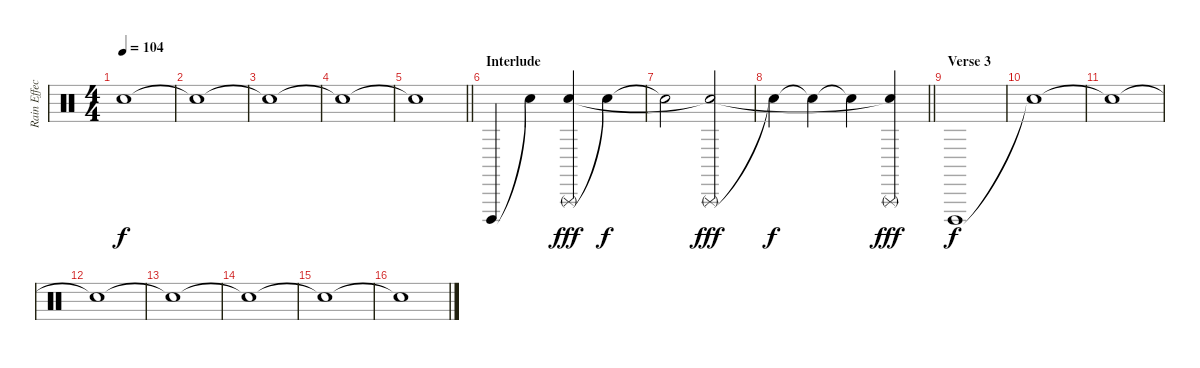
\track ("Rain Effect" "Rain Effec") {instrument percussion}
\staff {score}
\articulation defaults
\ts (4 4)
\tempo 104
\clef neutral
\ks c "Snare (hit)"{t}.1{dy f}
|
"Snare (hit)"{t}.1 |
"Snare (hit)"{t}.1 |
"Snare (hit)"{t}.1 |
\barLineRight lightlight "Snare (hit)"{t}.1
|
\section ("" "Interlude")
"Cuica (open)".4 "Snare (hit)"{t}.4 ("Triangle (rnute)" "Snare (hit)").4{dy fff} "Snare (hit)"{t}.4{dy f} |
"Snare (hit)"{t}.2 ("Triangle (rnute)" "Snare (hit)"{t}).2{dy fff} |
\barLineRight lightlight "Snare (hit)"{t}.4{dy f} "Snare (hit)"{t}.4 "Snare (hit)"{t}.4
("Triangle (rnute)" "Snare (hit)"{t}).4{dy fff} |
\section ("" "Verse 3")
"Cuica (open)".1{dy f} |
"Snare (hit)"{t}.1 |
"Snare (hit)"{t}.1 |
"Snare (hit)"{t}.1 |
"Snare (hit)"{t}.1 |
"Snare (hit)"{t}.1 |
"Snare (hit)"{t}.1 |
"Snare (hit)"{t}.1
